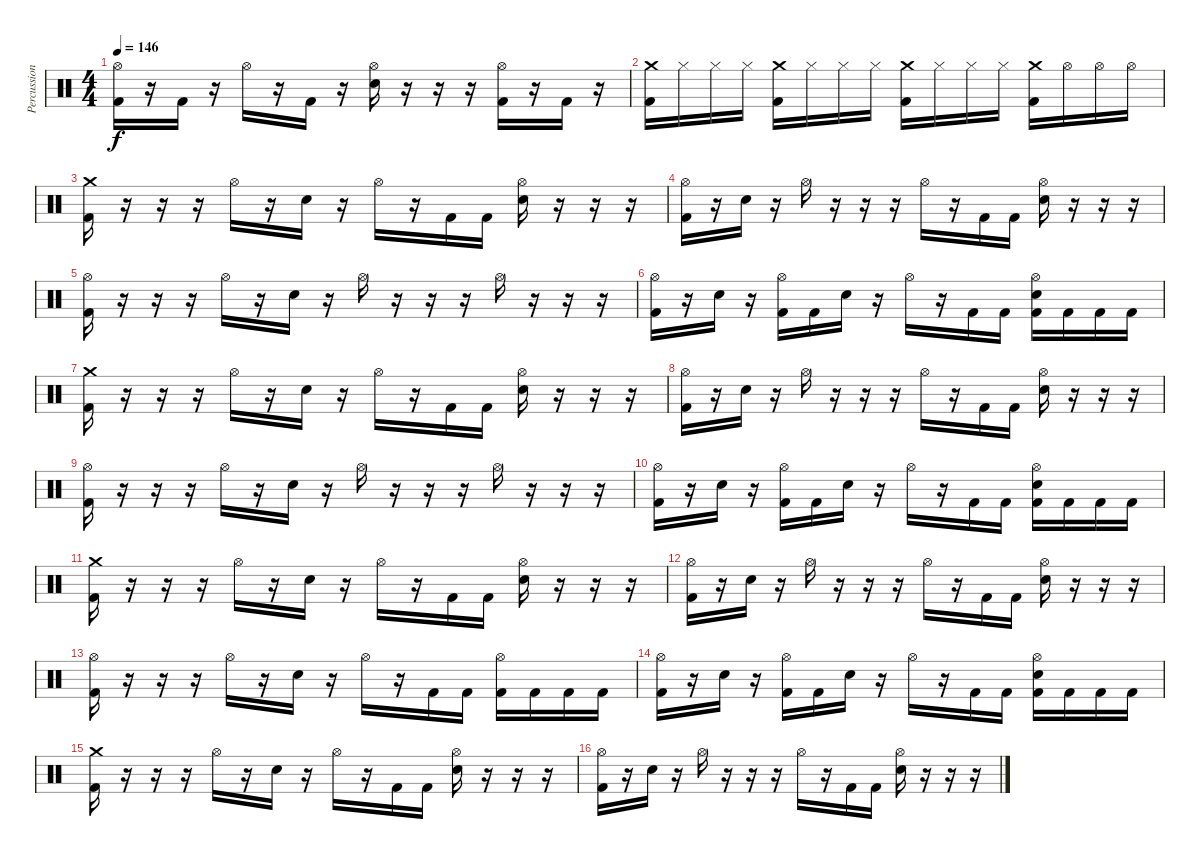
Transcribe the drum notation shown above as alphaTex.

\track ("Percussion" "Percussion") {instrument percussion}
\staff {score}
\articulation defaults
\ts (4 4)
\tempo 146
\clef neutral
\ks c
("Hi-Hat (open)" "Kick (hit) 2").16{dy f} r.16 "Kick (hit) 2".16 r.16 "Hi-Hat (open)".16 r.16 "Kick (hit) 2".16 r.16 ("Hi-Hat (open)" "Snare (hit) 2").16 r.16 r.16 r.16 ("Hi-Hat (open)" "Kick (hit) 2").16 r.16 "Kick (hit) 2".16 r.16 |
("Crash medium (hit)" "Kick (hit) 2").16 "Hi-Hat (closed)".16 "Hi-Hat (closed)".16 "Hi-Hat (closed)".16 ("Crash medium (hit)" "Kick (hit) 2").16 "Hi-Hat (closed)".16 "Hi-Hat (closed)".16 "Hi-Hat (closed)".16 ("Crash medium (hit)" "Kick (hit) 2").16 "Hi-Hat (closed)".16 "Hi-Hat (closed)".16 "Hi-Hat (closed)".16 ("Crash medium (hit)" "Kick (hit) 2").16 "Hi-Hat (open)".16 "Hi-Hat (open)".16 "Hi-Hat (open)".16 |
("Crash medium (hit)" "Kick (hit) 2").16 r.16 r.16 r.16 "Hi-Hat (open)".16 r.16 "Snare (hit) 2".16 r.16 "Hi-Hat (open)".16 r.16 "Kick (hit) 2".16 "Kick (hit) 2".16 ("Hi-Hat (open)" "Snare (hit) 2").16 r.16 r.16 r.16 |
("Hi-Hat (open)" "Kick (hit) 2").16 r.16 "Snare (hit) 2".16 r.16 "Hi-Hat (open)".16 r.16 r.16 r.16 "Hi-Hat (open)".16 r.16 "Kick (hit) 2".16 "Kick (hit) 2".16 ("Hi-Hat (open)" "Snare (hit) 2").16 r.16 r.16 r.16 |
("Hi-Hat (open)" "Kick (hit) 2").16 r.16 r.16 r.16 "Hi-Hat (open)".16 r.16 "Snare (hit) 2".16 r.16 "Hi-Hat (open)".16 r.16 r.16 r.16 "Hi-Hat (open)".16 r.16 r.16 r.16 |
("Hi-Hat (open)" "Kick (hit) 2").16 r.16 "Snare (hit) 2".16 r.16 ("Hi-Hat (open)" "Kick (hit) 2").16 "Kick (hit) 2".16 "Snare (hit) 2".16 r.16 "Hi-Hat (open)".16 r.16 "Kick (hit) 2".16 "Kick (hit) 2".16 ("Hi-Hat (open)" "Snare (hit) 2" "Kick (hit) 2").16 "Kick (hit) 2".16 "Kick (hit) 2".16 "Kick (hit) 2".16 |
("Crash medium (hit)" "Kick (hit) 2").16 r.16 r.16 r.16 "Hi-Hat (open)".16 r.16 "Snare (hit) 2".16 r.16 "Hi-Hat (open)".16 r.16 "Kick (hit) 2".16 "Kick (hit) 2".16 ("Hi-Hat (open)" "Snare (hit) 2").16 r.16 r.16 r.16 |
("Hi-Hat (open)" "Kick (hit) 2").16 r.16 "Snare (hit) 2".16 r.16 "Hi-Hat (open)".16 r.16 r.16 r.16 "Hi-Hat (open)".16 r.16 "Kick (hit) 2".16 "Kick (hit) 2".16 ("Hi-Hat (open)" "Snare (hit) 2").16 r.16 r.16 r.16 |
("Hi-Hat (open)" "Kick (hit) 2").16 r.16 r.16 r.16 "Hi-Hat (open)".16 r.16 "Snare (hit) 2".16 r.16 "Hi-Hat (open)".16 r.16 r.16 r.16 "Hi-Hat (open)".16 r.16 r.16 r.16 |
("Hi-Hat (open)" "Kick (hit) 2").16 r.16 "Snare (hit) 2".16 r.16 ("Hi-Hat (open)" "Kick (hit) 2").16 "Kick (hit) 2".16 "Snare (hit) 2".16 r.16 "Hi-Hat (open)".16 r.16 "Kick (hit) 2".16 "Kick (hit) 2".16 ("Hi-Hat (open)" "Snare (hit) 2" "Kick (hit) 2").16 "Kick (hit) 2".16 "Kick (hit) 2".16 "Kick (hit) 2".16 |
("Crash medium (hit)" "Kick (hit) 2").16 r.16 r.16 r.16 "Hi-Hat (open)".16 r.16 "Snare (hit) 2".16 r.16 "Hi-Hat (open)".16 r.16 "Kick (hit) 2".16 "Kick (hit) 2".16 ("Hi-Hat (open)" "Snare (hit) 2").16 r.16 r.16 r.16 |
("Hi-Hat (open)" "Kick (hit) 2").16 r.16 "Snare (hit) 2".16 r.16 "Hi-Hat (open)".16 r.16 r.16 r.16 "Hi-Hat (open)".16 r.16 "Kick (hit) 2".16 "Kick (hit) 2".16 ("Hi-Hat (open)" "Snare (hit) 2").16 r.16 r.16 r.16 |
("Hi-Hat (open)" "Kick (hit) 2").16 r.16 r.16 r.16 "Hi-Hat (open)".16 r.16 "Snare (hit) 2".16 r.16 "Hi-Hat (open)".16 r.16 "Kick (hit) 2".16 "Kick (hit) 2".16 ("Hi-Hat (open)" "Kick (hit) 2").16 "Kick (hit) 2".16 "Kick (hit) 2".16 "Kick (hit) 2".16 |
("Hi-Hat (open)" "Kick (hit) 2").16 r.16 "Snare (hit) 2".16 r.16 ("Hi-Hat (open)" "Kick (hit) 2").16 "Kick (hit) 2".16 "Snare (hit) 2".16 r.16 "Hi-Hat (open)".16 r.16 "Kick (hit) 2".16 "Kick (hit) 2".16 ("Hi-Hat (open)" "Snare (hit) 2" "Kick (hit) 2").16 "Kick (hit) 2".16 "Kick (hit) 2".16 "Kick (hit) 2".16 |
("Crash medium (hit)" "Kick (hit) 2").16 r.16 r.16 r.16 "Hi-Hat (open)".16 r.16 "Snare (hit) 2".16 r.16 "Hi-Hat (open)".16 r.16 "Kick (hit) 2".16 "Kick (hit) 2".16 ("Hi-Hat (open)" "Snare (hit) 2").16 r.16 r.16 r.16 |
("Hi-Hat (open)" "Kick (hit) 2").16 r.16 "Snare (hit) 2".16 r.16 "Hi-Hat (open)".16 r.16 r.16 r.16 "Hi-Hat (open)".16 r.16 "Kick (hit) 2".16 "Kick (hit) 2".16 ("Hi-Hat (open)" "Snare (hit) 2").16 r.16 r.16 r.16
